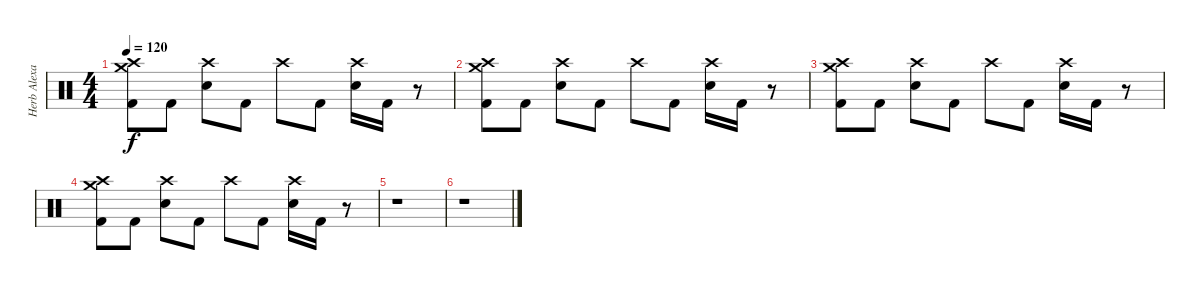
\track ("Herb Alexander" "Herb Alexa") {instrument percussion}
\staff {score}
\articulation defaults
\ts (4 4)
\tempo 120
\clef neutral
\ks c
("Crash medium (hit)" "Crash high (hit)" "Kick (hit) 2").8{dy f} "Kick (hit) 2".8 ("Crash high (hit)" "Electric Snare (hit)").8 "Kick (hit) 2".8 "Crash high (hit)".8 "Kick (hit) 2".8 ("Crash high (hit)" "Electric Snare (hit)").16 "Kick (hit) 2".16 r.8 |
("Crash medium (hit)" "Crash high (hit)" "Kick (hit) 2").8 "Kick (hit) 2".8 ("Crash high (hit)" "Electric Snare (hit)").8 "Kick (hit) 2".8 "Crash high (hit)".8 "Kick (hit) 2".8 ("Crash high (hit)" "Electric Snare (hit)").16 "Kick (hit) 2".16 r.8 |
("Crash medium (hit)" "Crash high (hit)" "Kick (hit) 2").8 "Kick (hit) 2".8 ("Crash high (hit)" "Electric Snare (hit)").8 "Kick (hit) 2".8 "Crash high (hit)".8 "Kick (hit) 2".8 ("Crash high (hit)" "Electric Snare (hit)").16 "Kick (hit) 2".16 r.8 |
("Crash medium (hit)" "Crash high (hit)" "Kick (hit) 2").8 "Kick (hit) 2".8 ("Crash high (hit)" "Electric Snare (hit)").8 "Kick (hit) 2".8 "Crash high (hit)".8 "Kick (hit) 2".8 ("Crash high (hit)" "Electric Snare (hit)").16 "Kick (hit) 2".16 r.8 |
r.1 |
r.1
